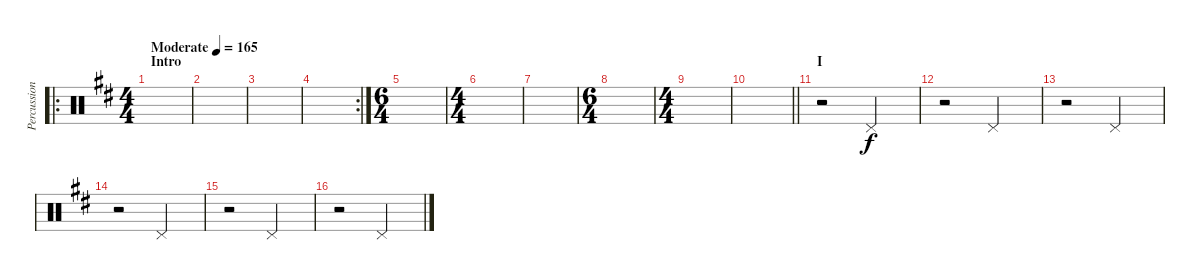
\track ("Percussion [Nick Mason]" "Percussion") {instrument percussion}
\staff {score}
\articulation defaults
\ro
\ts (4 4)
\section ("" "Intro")
\tempo (165 "Moderate")
\clef neutral
\ks d
|
|
|
\rc 2
|
\ts (6 4)
|
\ts (4 4)
|
|
\ts (6 4)
|
\ts (4 4)
|
\barLineRight lightlight
|
\section ("" "I")
r.2 "Pedal Hi-Hat (hit)".2 |
r.2 "Pedal Hi-Hat (hit)".2 |
r.2 "Pedal Hi-Hat (hit)".2 |
r.2 "Pedal Hi-Hat (hit)".2 |
r.2 "Pedal Hi-Hat (hit)".2 |
r.2 "Pedal Hi-Hat (hit)".2
